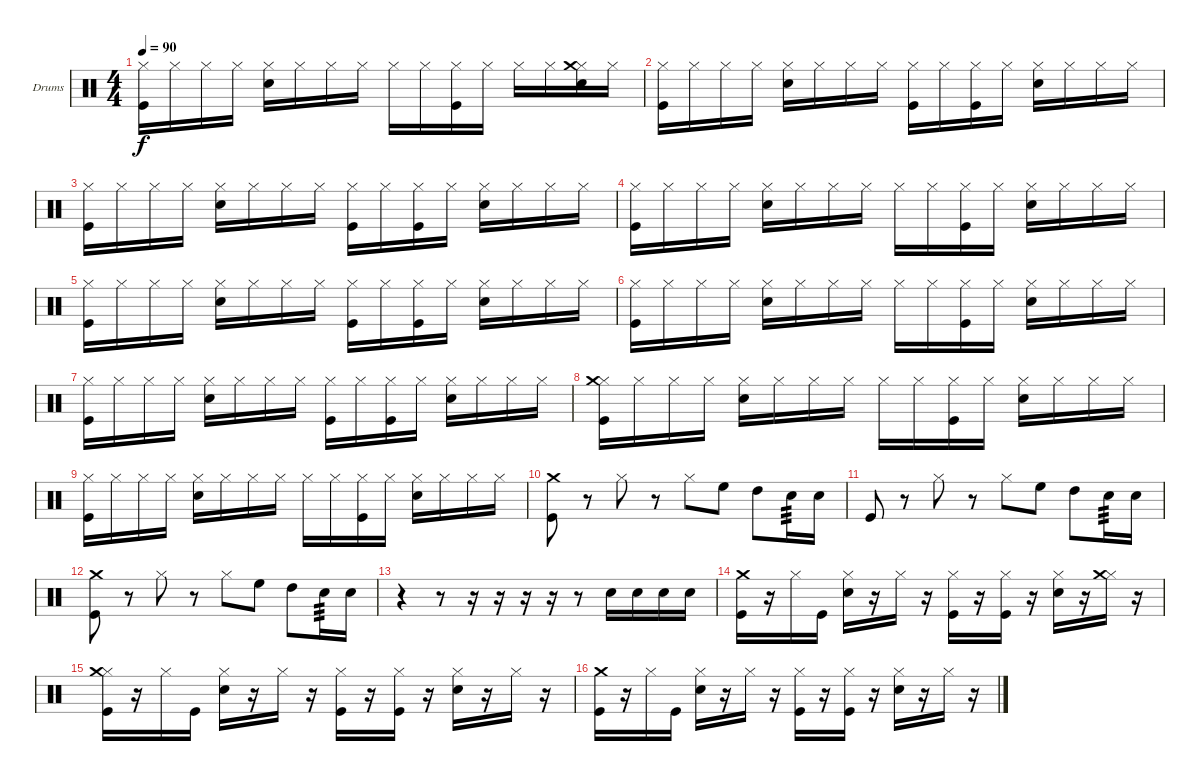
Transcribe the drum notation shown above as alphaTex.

\bracketExtendMode groupsimilarinstruments
\firstSystemTrackNameOrientation horizontal
\otherSystemsTrackNameOrientation horizontal
\track ("Drumkit" "Drums") {instrument percussion}
\staff {score}
\articulation defaults
\ts (4 4)
\tempo 90
\clef neutral
\ks c
("Kick (hit)" "Hi-Hat (closed)").16{dy f} "Hi-Hat (closed)".16 "Hi-Hat (closed)".16 "Hi-Hat (closed)".16 ("Snare (hit) 2" "Hi-Hat (closed)").16 "Hi-Hat (closed)".16 "Hi-Hat (closed)".16 "Hi-Hat (closed)".16 "Hi-Hat (closed)".16 "Hi-Hat (closed)".16 ("Kick (hit)" "Hi-Hat (closed)").16 "Hi-Hat (closed)".16 "Hi-Hat (closed)".16 "Hi-Hat (closed)".16 ("Snare (hit) 2" "Hi-Hat (closed)" "Crash medium (hit)").16 "Hi-Hat (closed)".16 |
("Kick (hit)" "Hi-Hat (closed)").16 "Hi-Hat (closed)".16 "Hi-Hat (closed)".16 "Hi-Hat (closed)".16 ("Snare (hit) 2" "Hi-Hat (closed)").16 "Hi-Hat (closed)".16 "Hi-Hat (closed)".16 "Hi-Hat (closed)".16 ("Kick (hit)" "Hi-Hat (closed)").16 "Hi-Hat (closed)".16 ("Kick (hit)" "Hi-Hat (closed)").16 "Hi-Hat (closed)".16 ("Snare (hit) 2" "Hi-Hat (closed)").16 "Hi-Hat (closed)".16 "Hi-Hat (closed)".16 "Hi-Hat (closed)".16 |
("Kick (hit)" "Hi-Hat (closed)").16 "Hi-Hat (closed)".16 "Hi-Hat (closed)".16 "Hi-Hat (closed)".16 ("Snare (hit) 2" "Hi-Hat (closed)").16 "Hi-Hat (closed)".16 "Hi-Hat (closed)".16 "Hi-Hat (closed)".16 ("Kick (hit)" "Hi-Hat (closed)").16 "Hi-Hat (closed)".16 ("Kick (hit)" "Hi-Hat (closed)").16 "Hi-Hat (closed)".16 ("Snare (hit) 2" "Hi-Hat (closed)").16 "Hi-Hat (closed)".16 "Hi-Hat (closed)".16 "Hi-Hat (closed)".16 |
("Kick (hit)" "Hi-Hat (closed)").16 "Hi-Hat (closed)".16 "Hi-Hat (closed)".16 "Hi-Hat (closed)".16 ("Snare (hit) 2" "Hi-Hat (closed)").16 "Hi-Hat (closed)".16 "Hi-Hat (closed)".16 "Hi-Hat (closed)".16 "Hi-Hat (closed)".16 "Hi-Hat (closed)".16 ("Kick (hit)" "Hi-Hat (closed)").16 "Hi-Hat (closed)".16 ("Snare (hit) 2" "Hi-Hat (closed)").16 "Hi-Hat (closed)".16 "Hi-Hat (closed)".16 "Hi-Hat (closed)".16 |
("Kick (hit)" "Hi-Hat (closed)").16 "Hi-Hat (closed)".16 "Hi-Hat (closed)".16 "Hi-Hat (closed)".16 ("Snare (hit) 2" "Hi-Hat (closed)").16 "Hi-Hat (closed)".16 "Hi-Hat (closed)".16 "Hi-Hat (closed)".16 ("Kick (hit)" "Hi-Hat (closed)").16 "Hi-Hat (closed)".16 ("Kick (hit)" "Hi-Hat (closed)").16 "Hi-Hat (closed)".16 ("Snare (hit) 2" "Hi-Hat (closed)").16 "Hi-Hat (closed)".16 "Hi-Hat (closed)".16 "Hi-Hat (closed)".16 |
("Kick (hit)" "Hi-Hat (closed)").16 "Hi-Hat (closed)".16 "Hi-Hat (closed)".16 "Hi-Hat (closed)".16 ("Snare (hit) 2" "Hi-Hat (closed)").16 "Hi-Hat (closed)".16 "Hi-Hat (closed)".16 "Hi-Hat (closed)".16 "Hi-Hat (closed)".16 "Hi-Hat (closed)".16 ("Kick (hit)" "Hi-Hat (closed)").16 "Hi-Hat (closed)".16 ("Snare (hit) 2" "Hi-Hat (closed)").16 "Hi-Hat (closed)".16 "Hi-Hat (closed)".16 "Hi-Hat (closed)".16 |
("Kick (hit)" "Hi-Hat (closed)").16 "Hi-Hat (closed)".16 "Hi-Hat (closed)".16 "Hi-Hat (closed)".16 ("Snare (hit) 2" "Hi-Hat (closed)").16 "Hi-Hat (closed)".16 "Hi-Hat (closed)".16 "Hi-Hat (closed)".16 ("Kick (hit)" "Hi-Hat (closed)").16 "Hi-Hat (closed)".16 ("Kick (hit)" "Hi-Hat (closed)").16 "Hi-Hat (closed)".16 ("Snare (hit) 2" "Hi-Hat (closed)").16 "Hi-Hat (closed)".16 "Hi-Hat (closed)".16 "Hi-Hat (closed)".16 |
("Kick (hit)" "Hi-Hat (closed)" "Crash medium (hit)").16 "Hi-Hat (closed)".16 "Hi-Hat (closed)".16 "Hi-Hat (closed)".16 ("Snare (hit) 2" "Hi-Hat (closed)").16 "Hi-Hat (closed)".16 "Hi-Hat (closed)".16 "Hi-Hat (closed)".16 "Hi-Hat (closed)".16 "Hi-Hat (closed)".16 ("Kick (hit)" "Hi-Hat (closed)").16 "Hi-Hat (closed)".16 ("Snare (hit) 2" "Hi-Hat (closed)").16 "Hi-Hat (closed)".16 "Hi-Hat (closed)".16 "Hi-Hat (closed)".16 |
("Kick (hit)" "Hi-Hat (closed)").16 "Hi-Hat (closed)".16 "Hi-Hat (closed)".16 "Hi-Hat (closed)".16 ("Snare (hit) 2" "Hi-Hat (closed)").16 "Hi-Hat (closed)".16 "Hi-Hat (closed)".16 "Hi-Hat (closed)".16 "Hi-Hat (closed)".16 "Hi-Hat (closed)".16 ("Kick (hit)" "Hi-Hat (closed)").16 "Hi-Hat (closed)".16 ("Snare (hit) 2" "Hi-Hat (closed)").16 "Hi-Hat (closed)".16 "Hi-Hat (closed)".16 "Hi-Hat (closed)".16 |
("Kick (hit)" "Crash medium (hit)").8 r.8 "Hi-Hat (closed)".8 r.8 "Hi-Hat (closed)".8 "High Floor Tom (hit)".8 "High Tom (hit)".8 "Snare (hit) 2".16{tp 3} "Snare (hit) 2".16 |
"Kick (hit)".8 r.8 "Hi-Hat (closed)".8 r.8 "Hi-Hat (closed)".8 "High Floor Tom (hit)".8 "High Tom (hit)".8 "Snare (hit) 2".16{tp 3} "Snare (hit) 2".16 |
("Kick (hit)" "Crash medium (hit)").8 r.8 "Hi-Hat (closed)".8 r.8 "Hi-Hat (closed)".8 "High Floor Tom (hit)".8 "High Tom (hit)".8 "Snare (hit) 2".16{tp 3} "Snare (hit) 2".16 |
r.4 r.8 r.16 r.16 r.16 r.16 r.8 "Snare (hit) 2".16 "Snare (hit) 2".16 "Snare (hit) 2".16 "Snare (hit) 2".16 |
("Kick (hit)" "Crash medium (hit)").16 r.16 "Hi-Hat (closed)".16 "Kick (hit)".16 ("Snare (hit) 2" "Hi-Hat (closed)").16 r.16 "Hi-Hat (closed)".16 r.16 ("Kick (hit)" "Hi-Hat (closed)").16 r.16 ("Kick (hit)" "Hi-Hat (closed)").16 r.16 ("Snare (hit) 2" "Hi-Hat (closed)").16 r.16 ("Hi-Hat (closed)" "Crash medium (hit)").16 r.16 |
("Kick (hit)" "Hi-Hat (closed)" "Crash medium (hit)").16 r.16 "Hi-Hat (closed)".16 "Kick (hit)".16 ("Snare (hit) 2" "Hi-Hat (closed)").16 r.16 "Hi-Hat (closed)".16 r.16 ("Kick (hit)" "Hi-Hat (closed)").16 r.16 ("Kick (hit)" "Hi-Hat (closed)").16 r.16 ("Snare (hit) 2" "Hi-Hat (closed)").16 r.16 "Hi-Hat (closed)".16 r.16 |
("Kick (hit)" "Crash medium (hit)").16 r.16 "Hi-Hat (closed)".16 "Kick (hit)".16 ("Snare (hit) 2" "Hi-Hat (closed)").16 r.16 "Hi-Hat (closed)".16 r.16 ("Kick (hit)" "Hi-Hat (closed)").16 r.16 ("Kick (hit)" "Hi-Hat (closed)").16 r.16 ("Snare (hit) 2" "Hi-Hat (closed)").16 r.16 "Hi-Hat (closed)".16 r.16
